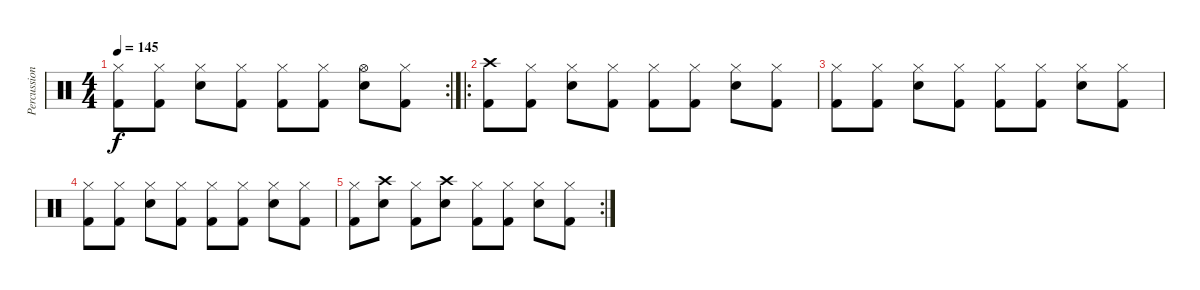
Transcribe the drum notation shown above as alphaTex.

\track ("Percussion" "Percussion") {instrument percussion}
\staff {score}
\articulation defaults
\rc 2
\ts (4 4)
\tempo 145
\clef neutral
\ks c
("Hi-Hat (closed)" "Kick (hit) 2").8{dy f} ("Hi-Hat (closed)" "Kick (hit) 2").8 ("Hi-Hat (closed)" "Snare (hit) 2").8 ("Hi-Hat (closed)" "Kick (hit) 2").8 ("Hi-Hat (closed)" "Kick (hit) 2").8 ("Hi-Hat (closed)" "Kick (hit) 2").8 ("Hi-Hat (open)" "Snare (hit) 2").8 ("Hi-Hat (closed)" "Kick (hit) 2").8 |
\ro
("Crash high (hit)" "Kick (hit) 2").8 ("Hi-Hat (closed)" "Kick (hit) 2").8 ("Hi-Hat (closed)" "Snare (hit) 2").8 ("Hi-Hat (closed)" "Kick (hit) 2").8 ("Hi-Hat (closed)" "Kick (hit) 2").8 ("Hi-Hat (closed)" "Kick (hit) 2").8 ("Hi-Hat (closed)" "Snare (hit) 2").8 ("Hi-Hat (closed)" "Kick (hit) 2").8 |
("Hi-Hat (closed)" "Kick (hit) 2").8 ("Hi-Hat (closed)" "Kick (hit) 2").8 ("Hi-Hat (closed)" "Snare (hit) 2").8 ("Hi-Hat (closed)" "Kick (hit) 2").8 ("Hi-Hat (closed)" "Kick (hit) 2").8 ("Hi-Hat (closed)" "Kick (hit) 2").8 ("Hi-Hat (closed)" "Snare (hit) 2").8 ("Hi-Hat (closed)" "Kick (hit) 2").8 |
("Hi-Hat (closed)" "Kick (hit) 2").8 ("Hi-Hat (closed)" "Kick (hit) 2").8 ("Hi-Hat (closed)" "Snare (hit) 2").8 ("Hi-Hat (closed)" "Kick (hit) 2").8 ("Hi-Hat (closed)" "Kick (hit) 2").8 ("Hi-Hat (closed)" "Kick (hit) 2").8 ("Hi-Hat (closed)" "Snare (hit) 2").8 ("Hi-Hat (closed)" "Kick (hit) 2").8 |
\rc 2
("Hi-Hat (closed)" "Kick (hit) 2").8 ("Crash high (hit)" "Snare (hit) 2").8 ("Hi-Hat (closed)" "Kick (hit) 2").8 ("Crash high (hit)" "Snare (hit) 2").8 ("Hi-Hat (closed)" "Kick (hit) 2").8 ("Hi-Hat (closed)" "Kick (hit) 2").8 ("Hi-Hat (closed)" "Snare (hit) 2").8 ("Hi-Hat (closed)" "Kick (hit) 2").8
